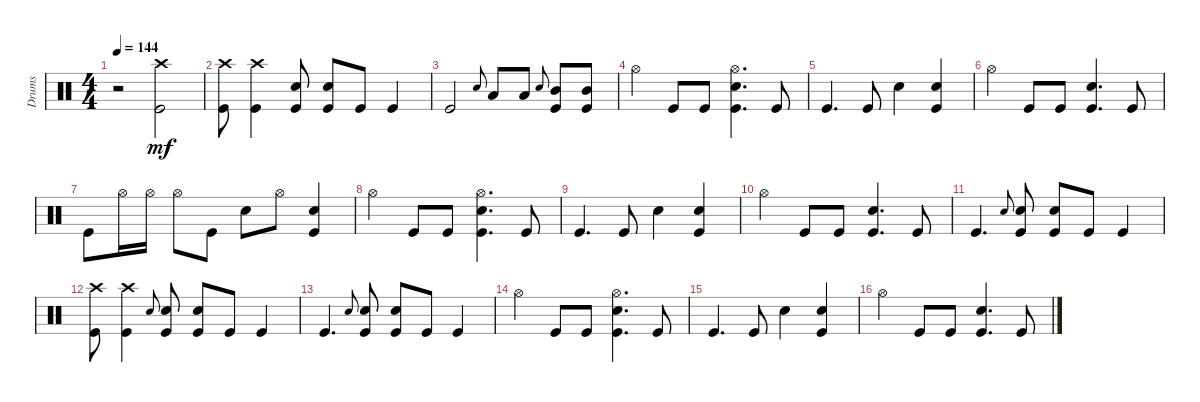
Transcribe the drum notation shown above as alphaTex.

\track ("Drums" "Drums") {instrument percussion}
\staff {score}
\articulation defaults
\ts (4 4)
\tempo 144
\clef neutral
\ks c
r.2{dy mf} ("Kick (hit)" "Crash high (hit)").2 |
("Kick (hit)" "Crash high (hit)").8 ("Kick (hit)" "Crash high (hit)").4 ("Kick (hit)" "Snare (hit) 2").8 ("Kick (hit)" "Snare (hit) 2").8 "Kick (hit)".8 "Kick (hit)".4 |
"Kick (hit)".2 "Snare (hit)".8{gr onbeat} "Low Tom (hit)".8 "Low Tom (hit)".8 "Snare (hit)".8{gr onbeat} ("Mid Tom (hit)" "Kick (hit)").8 ("Mid Tom (hit)" "Kick (hit)").8 |
"Hi-Hat (open)".4 "Kick (hit)".8 "Kick (hit)".8 ("Kick (hit)" "Snare (hit) 2" "Hi-Hat (open)").4{d} "Kick (hit)".8 |
"Kick (hit)".4{d} "Kick (hit)".8 "Snare (hit) 2".4 ("Kick (hit)" "Snare (hit) 2").4 |
"Hi-Hat (open)".4 "Kick (hit)".8 "Kick (hit)".8 ("Kick (hit)" "Snare (hit) 2").4{d} "Kick (hit)".8 |
"Kick (hit)".8 "Hi-Hat (open)".16 "Hi-Hat (open)".16 "Hi-Hat (open)".8 "Kick (hit)".8 "Snare (hit) 2".8 "Hi-Hat (open)".8 ("Kick (hit)" "Snare (hit) 2").4 |
"Hi-Hat (open)".4 "Kick (hit)".8 "Kick (hit)".8 ("Kick (hit)" "Snare (hit) 2" "Hi-Hat (open)").4{d} "Kick (hit)".8 |
"Kick (hit)".4{d} "Kick (hit)".8 "Snare (hit) 2".4 ("Kick (hit)" "Snare (hit) 2").4 |
"Hi-Hat (open)".4 "Kick (hit)".8 "Kick (hit)".8 ("Kick (hit)" "Snare (hit) 2").4{d} "Kick (hit)".8 |
"Kick (hit)".4{d} "Snare (hit)".8{gr onbeat} ("Kick (hit)" "Snare (hit) 2").8 ("Kick (hit)" "Snare (hit) 2").8 "Kick (hit)".8 "Kick (hit)".4 |
("Kick (hit)" "Crash high (hit)").8 ("Kick (hit)" "Crash high (hit)").4 "Snare (hit)".8{gr onbeat} ("Kick (hit)" "Snare (hit) 2").8 ("Kick (hit)" "Snare (hit) 2").8 "Kick (hit)".8 "Kick (hit)".4 |
"Kick (hit)".4{d} "Snare (hit)".8{gr onbeat} ("Kick (hit)" "Snare (hit) 2").8 ("Kick (hit)" "Snare (hit) 2").8 "Kick (hit)".8 "Kick (hit)".4 |
"Hi-Hat (open)".4 "Kick (hit)".8 "Kick (hit)".8 ("Kick (hit)" "Snare (hit) 2" "Hi-Hat (open)").4{d} "Kick (hit)".8 |
"Kick (hit)".4{d} "Kick (hit)".8 "Snare (hit) 2".4 ("Kick (hit)" "Snare (hit) 2").4 |
"Hi-Hat (open)".4 "Kick (hit)".8 "Kick (hit)".8 ("Kick (hit)" "Snare (hit) 2").4{d} "Kick (hit)".8
